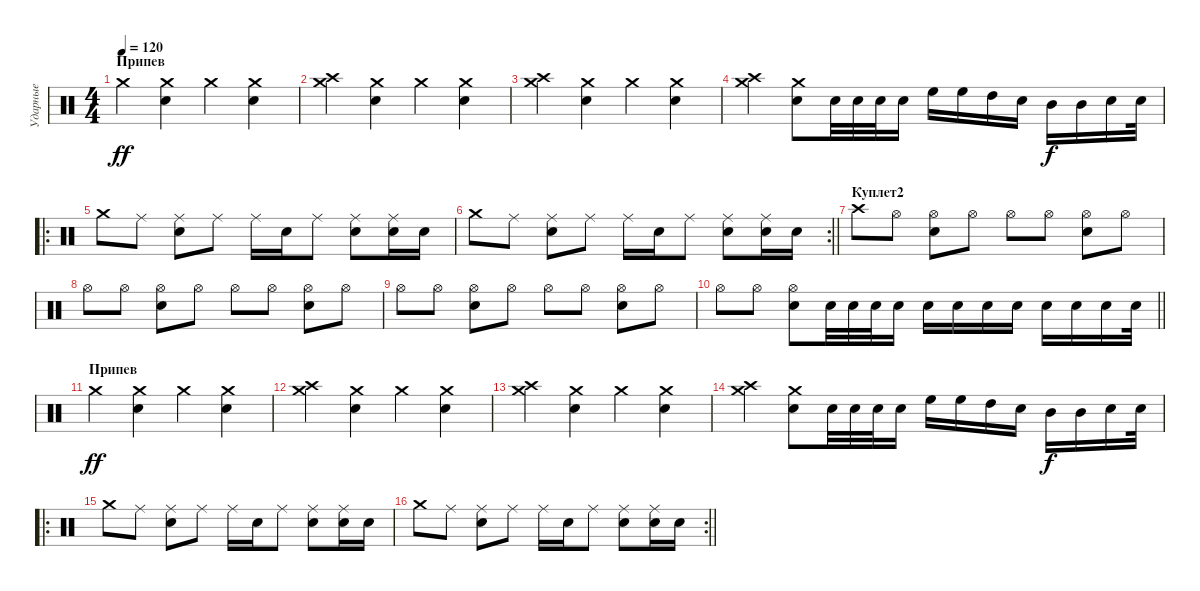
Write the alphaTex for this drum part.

\track ("Ударные" "Ударные") {instrument percussion}
\staff {score}
\articulation defaults
\ts (4 4)
\section ("" "Припев")
\tempo 120
\clef neutral
\ks c "Crash medium (hit)".4{dy ff}
("Crash medium (hit)" "Electric Snare (hit)").4 "Crash medium (hit)".4 ("Crash medium (hit)" "Electric Snare (hit)").4 |
("Crash medium (hit)" "Crash high (hit)").4 ("Crash medium (hit)" "Electric Snare (hit)").4 "Crash medium (hit)".4 ("Crash medium (hit)" "Electric Snare (hit)").4 |
("Crash medium (hit)" "Crash high (hit)").4 ("Crash medium (hit)" "Electric Snare (hit)").4 "Crash medium (hit)".4 ("Crash medium (hit)" "Electric Snare (hit)").4 |
("Crash medium (hit)" "Crash high (hit)").4 ("Crash medium (hit)" "Electric Snare (hit)").8 "Electric Snare (hit)".32 "Electric Snare (hit)".32 "Electric Snare (hit)".32 "Electric Snare (hit)".16 "High Floor Tom (hit)".16 "High Floor Tom (hit)".16 "High Tom (hit)".16 "Electric Snare (hit)".16 "Mid Tom (hit)".16{dy f} "Mid Tom (hit)".16 "Electric Snare (hit)".16 "Electric Snare (hit)".32 |
\ro "Crash medium (hit)".8 "Ride (middle)".8
("Ride (middle)" "Electric Snare (hit)").8 "Ride (middle)".8 "Ride (middle)".16 "Electric Snare (hit)".16 "Ride (middle)".8 ("Ride (middle)" "Electric Snare (hit)").8 ("Ride (middle)" "Electric Snare (hit)").16 "Electric Snare (hit)".16 |
\rc 2
\barLineRight lightlight "Crash medium (hit)".8 "Ride (middle)".8
("Ride (middle)" "Electric Snare (hit)").8 "Ride (middle)".8 "Ride (middle)".16 "Electric Snare (hit)".16 "Ride (middle)".8 ("Ride (middle)" "Electric Snare (hit)").8 ("Ride (middle)" "Electric Snare (hit)").16 "Electric Snare (hit)".16 |
\section ("" "Куплет2")
"Crash high (hit)".8 "Hi-Hat (open)".8 ("Hi-Hat (open)" "Electric Snare (hit)").8 "Hi-Hat (open)".8 "Hi-Hat (open)".8 "Hi-Hat (open)".8 ("Hi-Hat (open)" "Electric Snare (hit)").8 "Hi-Hat (open)".8 |
"Hi-Hat (open)".8 "Hi-Hat (open)".8 ("Hi-Hat (open)" "Electric Snare (hit)").8 "Hi-Hat (open)".8 "Hi-Hat (open)".8 "Hi-Hat (open)".8 ("Hi-Hat (open)" "Electric Snare (hit)").8 "Hi-Hat (open)".8 |
"Hi-Hat (open)".8 "Hi-Hat (open)".8 ("Hi-Hat (open)" "Electric Snare (hit)").8 "Hi-Hat (open)".8 "Hi-Hat (open)".8 "Hi-Hat (open)".8 ("Hi-Hat (open)" "Electric Snare (hit)").8 "Hi-Hat (open)".8 |
\barLineRight lightlight "Hi-Hat (open)".8 "Hi-Hat (open)".8
("Hi-Hat (open)" "Electric Snare (hit)").8 "Electric Snare (hit)".32 "Electric Snare (hit)".32 "Electric Snare (hit)".32 "Electric Snare (hit)".16 "Electric Snare (hit)".16 "Electric Snare (hit)".16 "Electric Snare (hit)".16 "Electric Snare (hit)".16 "Electric Snare (hit)".16 "Electric Snare (hit)".16 "Electric Snare (hit)".16 "Electric Snare (hit)".32 |
\section ("" "Припев")
"Crash medium (hit)".4{dy ff} ("Crash medium (hit)" "Electric Snare (hit)").4 "Crash medium (hit)".4 ("Crash medium (hit)" "Electric Snare (hit)").4 |
("Crash medium (hit)" "Crash high (hit)").4 ("Crash medium (hit)" "Electric Snare (hit)").4 "Crash medium (hit)".4 ("Crash medium (hit)" "Electric Snare (hit)").4 |
("Crash medium (hit)" "Crash high (hit)").4 ("Crash medium (hit)" "Electric Snare (hit)").4 "Crash medium (hit)".4 ("Crash medium (hit)" "Electric Snare (hit)").4 |
("Crash medium (hit)" "Crash high (hit)").4 ("Crash medium (hit)" "Electric Snare (hit)").8 "Electric Snare (hit)".32 "Electric Snare (hit)".32 "Electric Snare (hit)".32 "Electric Snare (hit)".16 "High Floor Tom (hit)".16 "High Floor Tom (hit)".16 "High Tom (hit)".16 "Electric Snare (hit)".16 "Mid Tom (hit)".16{dy f} "Mid Tom (hit)".16 "Electric Snare (hit)".16 "Electric Snare (hit)".32 |
\ro "Crash medium (hit)".8 "Ride (middle)".8
("Ride (middle)" "Electric Snare (hit)").8 "Ride (middle)".8 "Ride (middle)".16 "Electric Snare (hit)".16 "Ride (middle)".8 ("Ride (middle)" "Electric Snare (hit)").8 ("Ride (middle)" "Electric Snare (hit)").16 "Electric Snare (hit)".16 |
\rc 2
\barLineRight lightlight "Crash medium (hit)".8 "Ride (middle)".8
("Ride (middle)" "Electric Snare (hit)").8 "Ride (middle)".8 "Ride (middle)".16 "Electric Snare (hit)".16 "Ride (middle)".8 ("Ride (middle)" "Electric Snare (hit)").8 ("Ride (middle)" "Electric Snare (hit)").16 "Electric Snare (hit)".16
